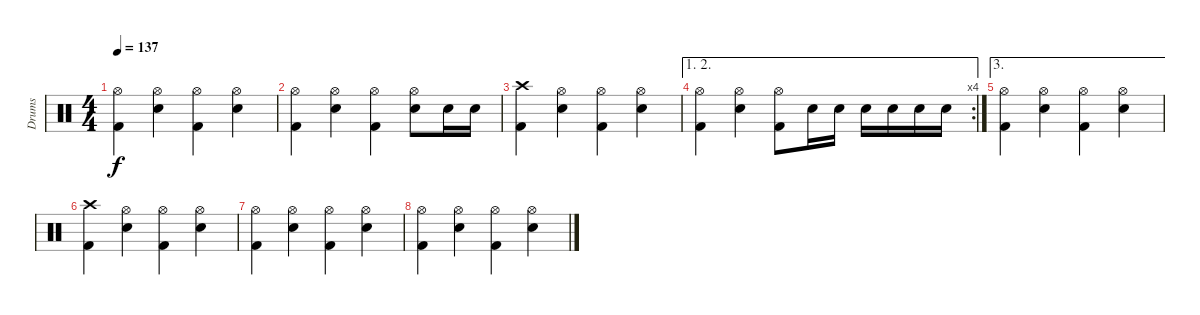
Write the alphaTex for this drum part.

\track ("Drums" "Drums") {instrument percussion}
\staff {score}
\articulation defaults
\ts (4 4)
\tempo 137
\clef neutral
\ks c
("Hi-Hat (open)" "Kick (hit) 2").4{dy f volume 16} ("Hi-Hat (open)" "Snare (hit) 2").4 ("Hi-Hat (open)" "Kick (hit) 2").4 ("Hi-Hat (open)" "Snare (hit) 2").4 |
("Hi-Hat (open)" "Kick (hit) 2").4{volume 16} ("Hi-Hat (open)" "Snare (hit) 2").4 ("Hi-Hat (open)" "Kick (hit) 2").4 ("Hi-Hat (open)" "Snare (hit) 2").8 "Snare (hit) 2".16 "Snare (hit) 2".16 |
("Crash high (hit)" "Kick (hit) 2").4{volume 16} ("Hi-Hat (open)" "Snare (hit) 2").4 ("Hi-Hat (open)" "Kick (hit) 2").4 ("Hi-Hat (open)" "Snare (hit) 2").4 |
\ae (1 2)
\rc 4
("Hi-Hat (open)" "Kick (hit) 2").4{volume 16} ("Hi-Hat (open)" "Snare (hit) 2").4 ("Hi-Hat (open)" "Kick (hit) 2").8 "Snare (hit) 2".16 "Snare (hit) 2".16 "Snare (hit) 2".16 "Snare (hit) 2".16 "Snare (hit) 2".16 "Snare (hit) 2".16 |
\ae 3
("Hi-Hat (open)" "Kick (hit) 2").4{volume 16} ("Hi-Hat (open)" "Snare (hit) 2").4 ("Hi-Hat (open)" "Kick (hit) 2").4 ("Hi-Hat (open)" "Snare (hit) 2").4 |
("Crash high (hit)" "Kick (hit) 2").4{volume 16} ("Hi-Hat (open)" "Snare (hit) 2").4 ("Hi-Hat (open)" "Kick (hit) 2").4 ("Hi-Hat (open)" "Snare (hit) 2").4 |
("Hi-Hat (open)" "Kick (hit) 2").4{volume 16} ("Hi-Hat (open)" "Snare (hit) 2").4 ("Hi-Hat (open)" "Kick (hit) 2").4 ("Hi-Hat (open)" "Snare (hit) 2").4 |
("Hi-Hat (open)" "Kick (hit) 2").4{volume 16} ("Hi-Hat (open)" "Snare (hit) 2").4 ("Hi-Hat (open)" "Kick (hit) 2").4 ("Hi-Hat (open)" "Snare (hit) 2").4
